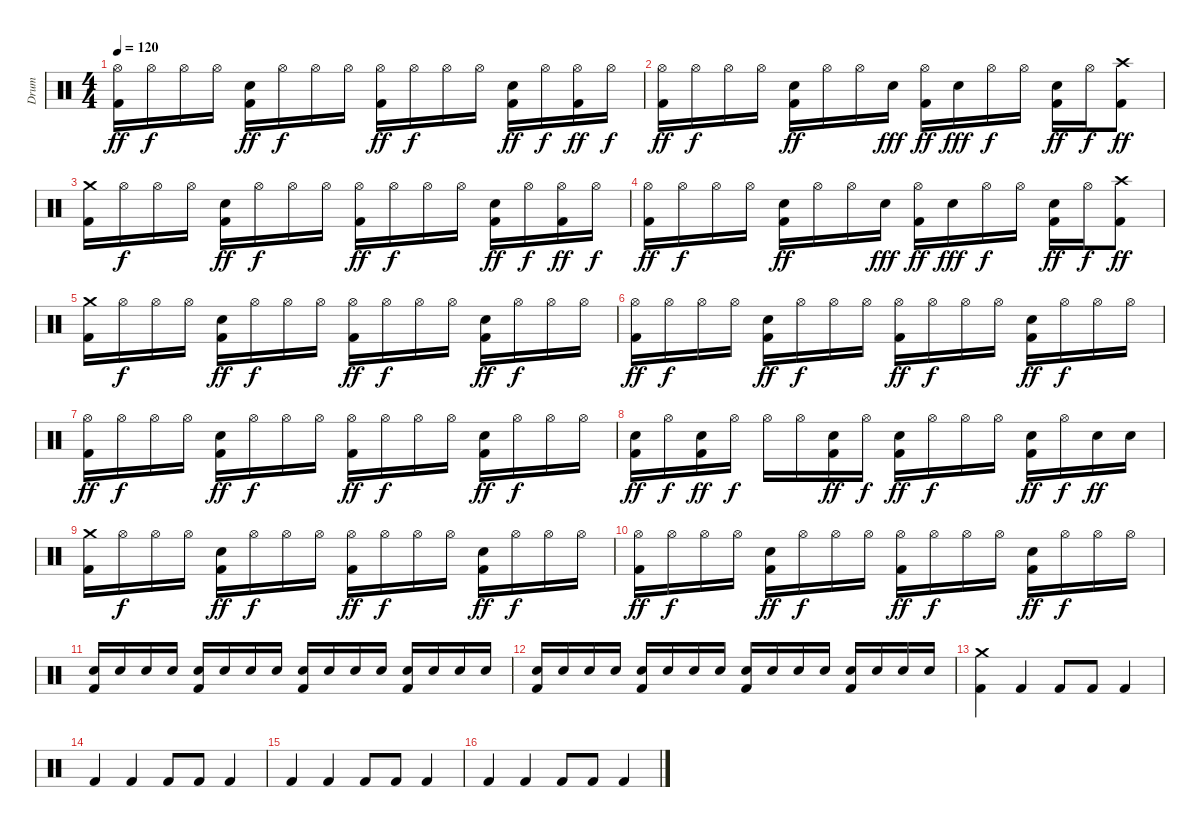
\track ("Drum" "Drum") {instrument percussion}
\staff {score}
\articulation defaults
\ts (4 4)
\tempo 120
\clef neutral
\ks c
("Hi-Hat (open)" "Kick (hit) 2").16{dy ff} "Hi-Hat (open)".16{dy f} "Hi-Hat (open)".16 "Hi-Hat (open)".16 ("Kick (hit) 2" "Electric Snare (hit)").16{dy ff} "Hi-Hat (open)".16{dy f} "Hi-Hat (open)".16 "Hi-Hat (open)".16 ("Hi-Hat (open)" "Kick (hit) 2").16{dy ff} "Hi-Hat (open)".16{dy f} "Hi-Hat (open)".16 "Hi-Hat (open)".16 ("Kick (hit) 2" "Electric Snare (hit)").16{dy ff} "Hi-Hat (open)".16{dy f} ("Hi-Hat (open)" "Kick (hit) 2").16{dy ff} "Hi-Hat (open)".16{dy f} |
("Hi-Hat (open)" "Kick (hit) 2").16{dy ff} "Hi-Hat (open)".16{dy f} "Hi-Hat (open)".16 "Hi-Hat (open)".16 ("Kick (hit) 2" "Electric Snare (hit)").16{dy ff} "Hi-Hat (open)".16 "Hi-Hat (open)".16 "Electric Snare (hit)".16{dy fff} ("Hi-Hat (open)" "Kick (hit) 2").16{dy ff} "Electric Snare (hit)".16{dy fff} "Hi-Hat (open)".16{dy f} "Hi-Hat (open)".16 ("Kick (hit) 2" "Electric Snare (hit)").16{dy ff} "Hi-Hat (open)".16{dy f} ("Crash high (hit)" "Kick (hit) 2").8{dy ff} |
("Crash medium (hit)" "Kick (hit) 2").16 "Hi-Hat (open)".16{dy f} "Hi-Hat (open)".16 "Hi-Hat (open)".16 ("Kick (hit) 2" "Electric Snare (hit)").16{dy ff} "Hi-Hat (open)".16{dy f} "Hi-Hat (open)".16 "Hi-Hat (open)".16 ("Hi-Hat (open)" "Kick (hit) 2").16{dy ff} "Hi-Hat (open)".16{dy f} "Hi-Hat (open)".16 "Hi-Hat (open)".16 ("Kick (hit) 2" "Electric Snare (hit)").16{dy ff} "Hi-Hat (open)".16{dy f} ("Hi-Hat (open)" "Kick (hit) 2").16{dy ff} "Hi-Hat (open)".16{dy f} |
("Hi-Hat (open)" "Kick (hit) 2").16{dy ff} "Hi-Hat (open)".16{dy f} "Hi-Hat (open)".16 "Hi-Hat (open)".16 ("Kick (hit) 2" "Electric Snare (hit)").16{dy ff} "Hi-Hat (open)".16 "Hi-Hat (open)".16 "Electric Snare (hit)".16{dy fff} ("Hi-Hat (open)" "Kick (hit) 2").16{dy ff} "Electric Snare (hit)".16{dy fff} "Hi-Hat (open)".16{dy f} "Hi-Hat (open)".16 ("Kick (hit) 2" "Electric Snare (hit)").16{dy ff} "Hi-Hat (open)".16{dy f} ("Crash high (hit)" "Kick (hit) 2").8{dy ff} |
("Crash medium (hit)" "Kick (hit) 2").16 "Hi-Hat (open)".16{dy f} "Hi-Hat (open)".16 "Hi-Hat (open)".16 ("Kick (hit) 2" "Electric Snare (hit)").16{dy ff} "Hi-Hat (open)".16{dy f} "Hi-Hat (open)".16 "Hi-Hat (open)".16 ("Hi-Hat (open)" "Kick (hit) 2").16{dy ff} "Hi-Hat (open)".16{dy f} "Hi-Hat (open)".16 "Hi-Hat (open)".16 ("Kick (hit) 2" "Electric Snare (hit)").16{dy ff} "Hi-Hat (open)".16{dy f} "Hi-Hat (open)".16 "Hi-Hat (open)".16 |
("Hi-Hat (open)" "Kick (hit) 2").16{dy ff} "Hi-Hat (open)".16{dy f} "Hi-Hat (open)".16 "Hi-Hat (open)".16 ("Kick (hit) 2" "Electric Snare (hit)").16{dy ff} "Hi-Hat (open)".16{dy f} "Hi-Hat (open)".16 "Hi-Hat (open)".16 ("Hi-Hat (open)" "Kick (hit) 2").16{dy ff} "Hi-Hat (open)".16{dy f} "Hi-Hat (open)".16 "Hi-Hat (open)".16 ("Kick (hit) 2" "Electric Snare (hit)").16{dy ff} "Hi-Hat (open)".16{dy f} "Hi-Hat (open)".16 "Hi-Hat (open)".16 |
("Hi-Hat (open)" "Kick (hit) 2").16{dy ff} "Hi-Hat (open)".16{dy f} "Hi-Hat (open)".16 "Hi-Hat (open)".16 ("Kick (hit) 2" "Electric Snare (hit)").16{dy ff} "Hi-Hat (open)".16{dy f} "Hi-Hat (open)".16 "Hi-Hat (open)".16 ("Hi-Hat (open)" "Kick (hit) 2").16{dy ff} "Hi-Hat (open)".16{dy f} "Hi-Hat (open)".16 "Hi-Hat (open)".16 ("Kick (hit) 2" "Electric Snare (hit)").16{dy ff} "Hi-Hat (open)".16{dy f} "Hi-Hat (open)".16 "Hi-Hat (open)".16 |
("Kick (hit) 2" "Electric Snare (hit)").16{dy ff} "Hi-Hat (open)".16{dy f} ("Kick (hit) 2" "Electric Snare (hit)").16{dy ff} "Hi-Hat (open)".16{dy f} "Hi-Hat (open)".16 "Hi-Hat (open)".16 ("Kick (hit) 2" "Electric Snare (hit)").16{dy ff} "Hi-Hat (open)".16{dy f} ("Kick (hit) 2" "Electric Snare (hit)").16{dy ff} "Hi-Hat (open)".16{dy f} "Hi-Hat (open)".16 "Hi-Hat (open)".16 ("Kick (hit) 2" "Electric Snare (hit)").16{dy ff} "Hi-Hat (open)".16{dy f} "Electric Snare (hit)".16{dy ff} "Electric Snare (hit)".16 |
("Crash medium (hit)" "Kick (hit) 2").16 "Hi-Hat (open)".16{dy f} "Hi-Hat (open)".16 "Hi-Hat (open)".16 ("Kick (hit) 2" "Electric Snare (hit)").16{dy ff} "Hi-Hat (open)".16{dy f} "Hi-Hat (open)".16 "Hi-Hat (open)".16 ("Hi-Hat (open)" "Kick (hit) 2").16{dy ff} "Hi-Hat (open)".16{dy f} "Hi-Hat (open)".16 "Hi-Hat (open)".16 ("Kick (hit) 2" "Electric Snare (hit)").16{dy ff} "Hi-Hat (open)".16{dy f} "Hi-Hat (open)".16 "Hi-Hat (open)".16 |
("Hi-Hat (open)" "Kick (hit) 2").16{dy ff} "Hi-Hat (open)".16{dy f} "Hi-Hat (open)".16 "Hi-Hat (open)".16 ("Kick (hit) 2" "Electric Snare (hit)").16{dy ff} "Hi-Hat (open)".16{dy f} "Hi-Hat (open)".16 "Hi-Hat (open)".16 ("Hi-Hat (open)" "Kick (hit) 2").16{dy ff} "Hi-Hat (open)".16{dy f} "Hi-Hat (open)".16 "Hi-Hat (open)".16 ("Kick (hit) 2" "Electric Snare (hit)").16{dy ff} "Hi-Hat (open)".16{dy f} "Hi-Hat (open)".16 "Hi-Hat (open)".16 |
("Electric Snare (hit)" "Kick (hit) 2").16{volume 16} "Electric Snare (hit)".16 "Electric Snare (hit)".16 "Electric Snare (hit)".16 ("Electric Snare (hit)" "Kick (hit) 2").16 "Electric Snare (hit)".16 "Electric Snare (hit)".16 "Electric Snare (hit)".16 ("Electric Snare (hit)" "Kick (hit) 2").16 "Electric Snare (hit)".16 "Electric Snare (hit)".16 "Electric Snare (hit)".16 ("Electric Snare (hit)" "Kick (hit) 2").16 "Electric Snare (hit)".16 "Electric Snare (hit)".16 "Electric Snare (hit)".16 |
("Electric Snare (hit)" "Kick (hit) 2").16 "Electric Snare (hit)".16 "Electric Snare (hit)".16 "Electric Snare (hit)".16 ("Electric Snare (hit)" "Kick (hit) 2").16 "Electric Snare (hit)".16 "Electric Snare (hit)".16 "Electric Snare (hit)".16 ("Electric Snare (hit)" "Kick (hit) 2").16 "Electric Snare (hit)".16 "Electric Snare (hit)".16 "Electric Snare (hit)".16 ("Electric Snare (hit)" "Kick (hit) 2").16 "Electric Snare (hit)".16 "Electric Snare (hit)".16 "Electric Snare (hit)".16 |
("Crash medium (hit)" "Kick (hit) 2").4{volume 13} "Kick (hit) 2".4 "Kick (hit) 2".8 "Kick (hit) 2".8 "Kick (hit) 2".4 |
"Kick (hit) 2".4 "Kick (hit) 2".4 "Kick (hit) 2".8 "Kick (hit) 2".8 "Kick (hit) 2".4 |
"Kick (hit) 2".4 "Kick (hit) 2".4 "Kick (hit) 2".8 "Kick (hit) 2".8 "Kick (hit) 2".4 |
"Kick (hit) 2".4 "Kick (hit) 2".4 "Kick (hit) 2".8 "Kick (hit) 2".8 "Kick (hit) 2".4
